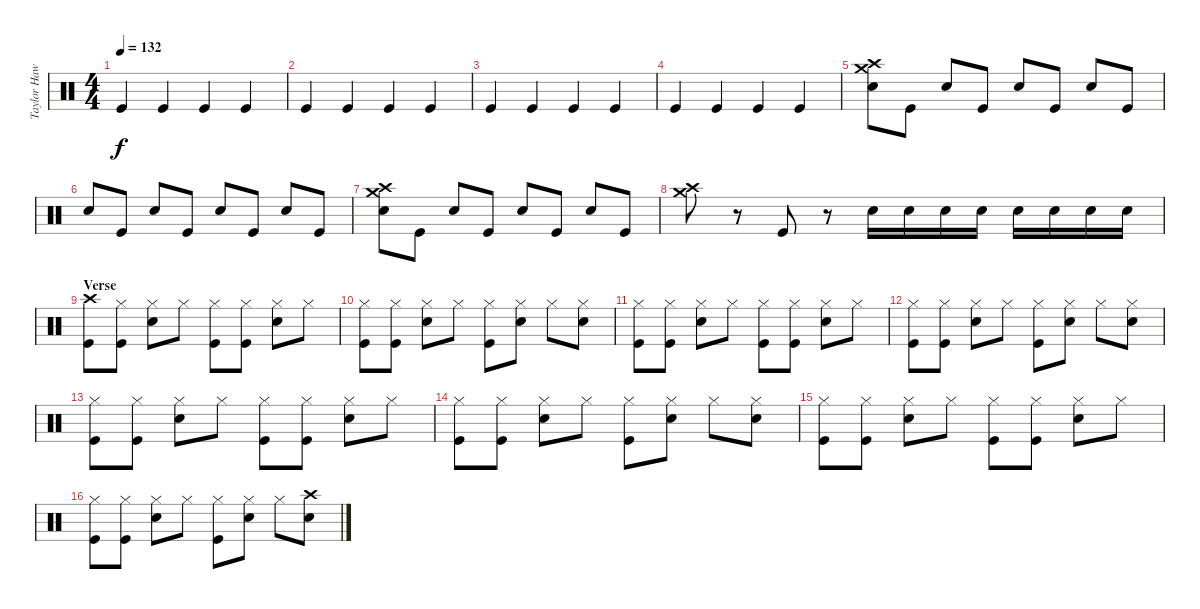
\track ("Taylor Hawkins (Drums)" "Taylor Haw") {instrument percussion}
\staff {score}
\articulation defaults
\ts (4 4)
\tempo 132
\clef neutral
\ks c "Kick (hit)".4{dy f} "Kick (hit)".4 "Kick (hit)".4 "Kick (hit)".4
|
"Kick (hit)".4 "Kick (hit)".4 "Kick (hit)".4 "Kick (hit)".4 |
"Kick (hit)".4 "Kick (hit)".4 "Kick (hit)".4 "Kick (hit)".4 |
"Kick (hit)".4 "Kick (hit)".4 "Kick (hit)".4 "Kick (hit)".4 |
("Crash high (hit)" "Crash medium (hit)" "Snare (hit) 2").8 "Kick (hit)".8 "Snare (hit) 2".8 "Kick (hit)".8 "Snare (hit) 2".8 "Kick (hit)".8 "Snare (hit) 2".8 "Kick (hit)".8 |
"Snare (hit) 2".8 "Kick (hit)".8 "Snare (hit) 2".8 "Kick (hit)".8 "Snare (hit) 2".8 "Kick (hit)".8 "Snare (hit) 2".8 "Kick (hit)".8 |
("Crash high (hit)" "Crash medium (hit)" "Snare (hit) 2").8 "Kick (hit)".8 "Snare (hit) 2".8 "Kick (hit)".8 "Snare (hit) 2".8 "Kick (hit)".8 "Snare (hit) 2".8 "Kick (hit)".8 |
("Crash high (hit)" "Crash medium (hit)").8 r.8 "Kick (hit)".8 r.8 "Snare (hit) 2".16 "Snare (hit) 2".16 "Snare (hit) 2".16 "Snare (hit) 2".16 "Snare (hit) 2".16 "Snare (hit) 2".16 "Snare (hit) 2".16 "Snare (hit) 2".16 |
\section ("" "Verse")
("Crash high (hit)" "Kick (hit)").8 ("Kick (hit)" "Hi-Hat (closed)").8 ("Snare (hit) 2" "Hi-Hat (closed)").8 "Hi-Hat (closed)".8 ("Kick (hit)" "Hi-Hat (closed)").8 ("Kick (hit)" "Hi-Hat (closed)").8 ("Snare (hit) 2" "Hi-Hat (closed)").8 "Hi-Hat (closed)".8 |
("Kick (hit)" "Hi-Hat (closed)").8 ("Kick (hit)" "Hi-Hat (closed)").8 ("Snare (hit) 2" "Hi-Hat (closed)").8 "Hi-Hat (closed)".8 ("Kick (hit)" "Hi-Hat (closed)").8 ("Snare (hit) 2" "Hi-Hat (closed)").8 "Hi-Hat (closed)".8 ("Snare (hit) 2" "Hi-Hat (closed)").8 |
("Kick (hit)" "Hi-Hat (closed)").8 ("Kick (hit)" "Hi-Hat (closed)").8 ("Snare (hit) 2" "Hi-Hat (closed)").8 "Hi-Hat (closed)".8 ("Kick (hit)" "Hi-Hat (closed)").8 ("Kick (hit)" "Hi-Hat (closed)").8 ("Snare (hit) 2" "Hi-Hat (closed)").8 "Hi-Hat (closed)".8 |
("Kick (hit)" "Hi-Hat (closed)").8 ("Kick (hit)" "Hi-Hat (closed)").8 ("Snare (hit) 2" "Hi-Hat (closed)").8 "Hi-Hat (closed)".8 ("Kick (hit)" "Hi-Hat (closed)").8 ("Snare (hit) 2" "Hi-Hat (closed)").8 "Hi-Hat (closed)".8 ("Snare (hit) 2" "Hi-Hat (closed)").8 |
("Kick (hit)" "Hi-Hat (closed)").8 ("Kick (hit)" "Hi-Hat (closed)").8 ("Snare (hit) 2" "Hi-Hat (closed)").8 "Hi-Hat (closed)".8 ("Kick (hit)" "Hi-Hat (closed)").8 ("Kick (hit)" "Hi-Hat (closed)").8 ("Snare (hit) 2" "Hi-Hat (closed)").8 "Hi-Hat (closed)".8 |
("Kick (hit)" "Hi-Hat (closed)").8 ("Kick (hit)" "Hi-Hat (closed)").8 ("Snare (hit) 2" "Hi-Hat (closed)").8 "Hi-Hat (closed)".8 ("Kick (hit)" "Hi-Hat (closed)").8 ("Snare (hit) 2" "Hi-Hat (closed)").8 "Hi-Hat (closed)".8 ("Snare (hit) 2" "Hi-Hat (closed)").8 |
("Kick (hit)" "Hi-Hat (closed)").8 ("Kick (hit)" "Hi-Hat (closed)").8 ("Snare (hit) 2" "Hi-Hat (closed)").8 "Hi-Hat (closed)".8 ("Kick (hit)" "Hi-Hat (closed)").8 ("Kick (hit)" "Hi-Hat (closed)").8 ("Snare (hit) 2" "Hi-Hat (closed)").8 "Hi-Hat (closed)".8 |
("Kick (hit)" "Hi-Hat (closed)").8 ("Kick (hit)" "Hi-Hat (closed)").8 ("Snare (hit) 2" "Hi-Hat (closed)").8 "Hi-Hat (closed)".8 ("Kick (hit)" "Hi-Hat (closed)").8 ("Snare (hit) 2" "Hi-Hat (closed)").8 "Hi-Hat (closed)".8 ("Snare (hit) 2" "Crash high (hit)").8
